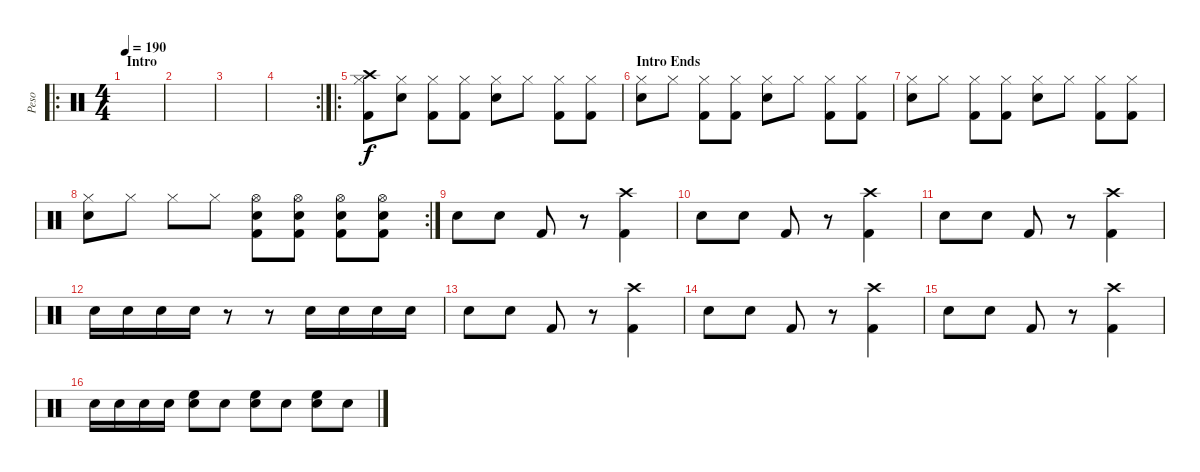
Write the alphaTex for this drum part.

\track ("Peso" "Peso") {instrument percussion}
\staff {score}
\articulation defaults
\ro
\ts (4 4)
\section ("" "Intro")
\tempo 190
\clef neutral
\ks c
|
|
|
\rc 2
|
\ro
("Crash high (hit)" "Hi-Hat (closed)" "Kick (hit) 2").8 ("Hi-Hat (closed)" "Snare (hit) 2").8 ("Hi-Hat (closed)" "Kick (hit) 2").8 ("Hi-Hat (closed)" "Kick (hit) 2").8 ("Hi-Hat (closed)" "Snare (hit) 2").8 "Hi-Hat (closed)".8 ("Hi-Hat (closed)" "Kick (hit) 2").8 ("Hi-Hat (closed)" "Kick (hit) 2").8 |
\section ("" "Intro Ends")
("Hi-Hat (closed)" "Snare (hit) 2").8 "Hi-Hat (closed)".8 ("Hi-Hat (closed)" "Kick (hit) 2").8 ("Hi-Hat (closed)" "Kick (hit) 2").8 ("Hi-Hat (closed)" "Snare (hit) 2").8 "Hi-Hat (closed)".8 ("Hi-Hat (closed)" "Kick (hit) 2").8 ("Hi-Hat (closed)" "Kick (hit) 2").8 |
("Hi-Hat (closed)" "Snare (hit) 2").8 "Hi-Hat (closed)".8 ("Hi-Hat (closed)" "Kick (hit) 2").8 ("Hi-Hat (closed)" "Kick (hit) 2").8 ("Hi-Hat (closed)" "Snare (hit) 2").8 "Hi-Hat (closed)".8 ("Hi-Hat (closed)" "Kick (hit) 2").8 ("Hi-Hat (closed)" "Kick (hit) 2").8 |
\rc 2
("Hi-Hat (closed)" "Snare (hit) 2").8 "Hi-Hat (closed)".8 "Hi-Hat (closed)".8 "Hi-Hat (closed)".8 ("Hi-Hat (open)" "Snare (hit) 2" "Kick (hit) 2").8 ("Hi-Hat (open)" "Snare (hit) 2" "Kick (hit) 2").8 ("Hi-Hat (open)" "Snare (hit) 2" "Kick (hit) 2").8 ("Hi-Hat (open)" "Snare (hit) 2" "Kick (hit) 2").8 |
"Snare (hit) 2".8 "Snare (hit) 2".8 "Kick (hit) 2".8 r.8 ("Crash high (hit)" "Kick (hit) 2").4 |
"Snare (hit) 2".8 "Snare (hit) 2".8 "Kick (hit) 2".8 r.8 ("Crash high (hit)" "Kick (hit) 2").4 |
"Snare (hit) 2".8 "Snare (hit) 2".8 "Kick (hit) 2".8 r.8 ("Crash high (hit)" "Kick (hit) 2").4 |
"Snare (hit) 2".16 "Snare (hit) 2".16 "Snare (hit) 2".16 "Snare (hit) 2".16 r.8 r.8 "Snare (hit) 2".16 "Snare (hit) 2".16 "Snare (hit) 2".16 "Snare (hit) 2".16 |
"Snare (hit) 2".8 "Snare (hit) 2".8 "Kick (hit) 2".8 r.8 ("Crash high (hit)" "Kick (hit) 2").4 |
"Snare (hit) 2".8 "Snare (hit) 2".8 "Kick (hit) 2".8 r.8 ("Crash high (hit)" "Kick (hit) 2").4 |
"Snare (hit) 2".8 "Snare (hit) 2".8 "Kick (hit) 2".8 r.8 ("Crash high (hit)" "Kick (hit) 2").4 |
"Snare (hit) 2".16 "Snare (hit) 2".16 "Snare (hit) 2".16 "Snare (hit) 2".16 ("Snare (hit) 2" "High Floor Tom (hit)").8 "Snare (hit) 2".8 ("Snare (hit) 2" "High Floor Tom (hit)").8 "Snare (hit) 2".8 ("Snare (hit) 2" "High Floor Tom (hit)").8 "Snare (hit) 2".8
